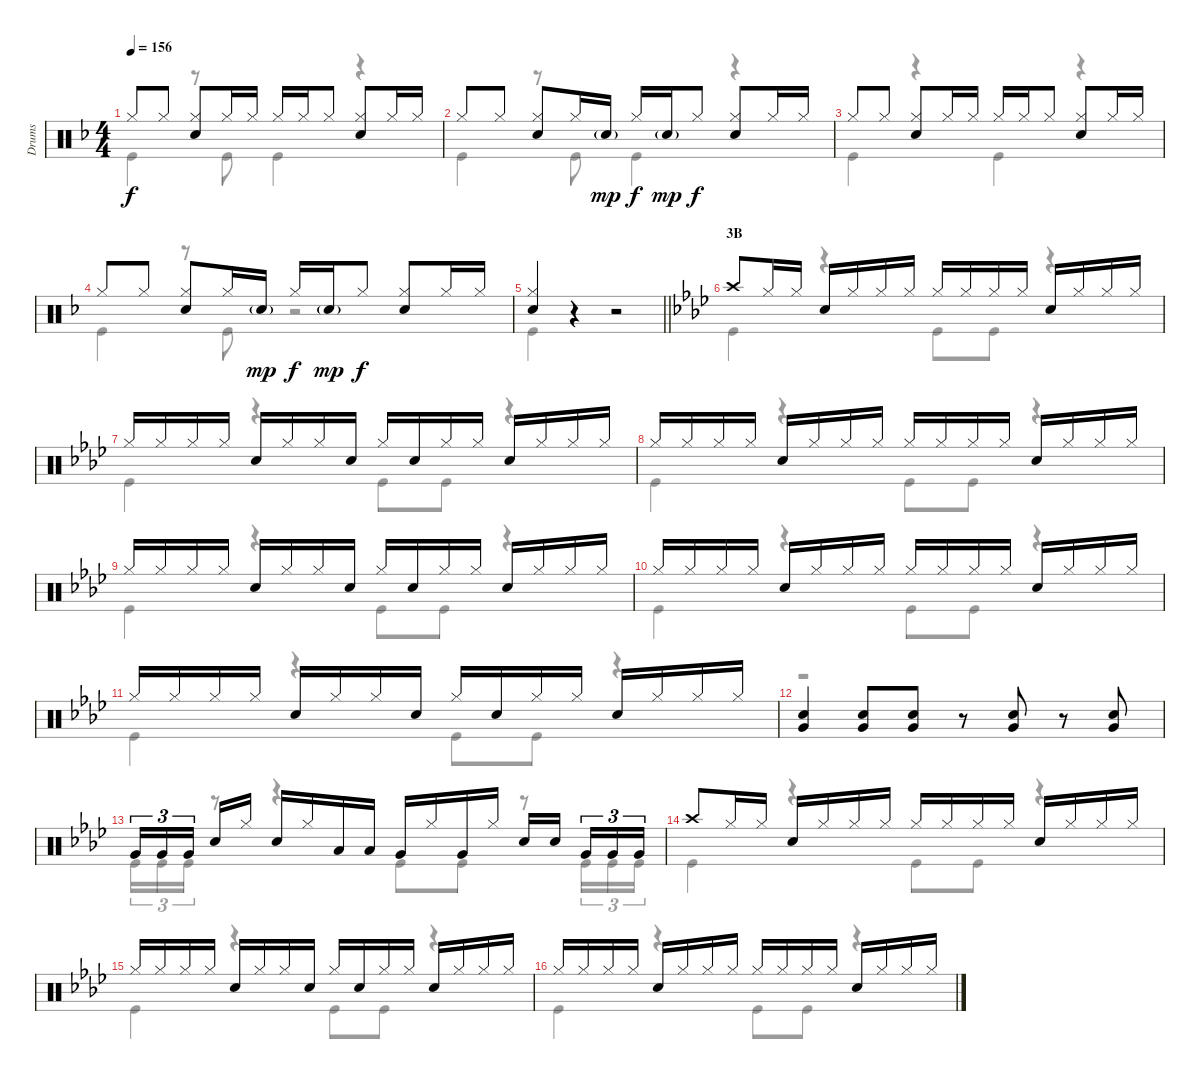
\track ("Drums" "Drums") {instrument percussion}
\staff {score}
\articulation defaults
\voice
\ts (4 4)
\tempo 156
\clef neutral
\ks f "Hi-Hat (closed)".8{dy f} "Hi-Hat (closed)".8
("Hi-Hat (closed)" "Snare (hit) 2").8 "Hi-Hat (closed)".16 "Hi-Hat (closed)".16 "Hi-Hat (closed)".16 "Hi-Hat (closed)".16 "Hi-Hat (closed)".8 ("Hi-Hat (closed)" "Snare (hit) 2").8 "Hi-Hat (closed)".16 "Hi-Hat (closed)".16 |
"Hi-Hat (closed)".8 "Hi-Hat (closed)".8 ("Hi-Hat (closed)" "Snare (hit) 2").8 "Hi-Hat (closed)".16 "Snare (hit) 2"{g}.16{dy mp} "Hi-Hat (closed)".16{dy f} "Snare (hit) 2"{g}.16{dy mp} "Hi-Hat (closed)".8{dy f} ("Hi-Hat (closed)" "Snare (hit) 2").8 "Hi-Hat (closed)".16 "Hi-Hat (closed)".16 |
"Hi-Hat (closed)".8 "Hi-Hat (closed)".8 ("Hi-Hat (closed)" "Snare (hit) 2").8 "Hi-Hat (closed)".16 "Hi-Hat (closed)".16 "Hi-Hat (closed)".16 "Hi-Hat (closed)".16 "Hi-Hat (closed)".8 ("Hi-Hat (closed)" "Snare (hit) 2").8 "Hi-Hat (closed)".16 "Hi-Hat (closed)".16 |
"Hi-Hat (closed)".8 "Hi-Hat (closed)".8 ("Hi-Hat (closed)" "Snare (hit) 2").8 "Hi-Hat (closed)".16 "Snare (hit) 2"{g}.16{dy mp} "Hi-Hat (closed)".16{dy f} "Snare (hit) 2"{g}.16{dy mp} "Hi-Hat (closed)".8{dy f} ("Hi-Hat (closed)" "Snare (hit) 2").8 "Hi-Hat (closed)".16 "Hi-Hat (closed)".16 |
\barLineRight lightlight
("Hi-Hat (closed)" "Snare (hit) 2").4 r.4 r.2 |
\section ("" "3B")
\ks ab "Crash high (hit)".8 "Hi-Hat (closed)".16 "Hi-Hat (closed)".16 "Snare (hit) 2".16 "Hi-Hat (closed)".16 "Hi-Hat (closed)".16 "Hi-Hat (closed)".16 "Hi-Hat (closed)".16 "Hi-Hat (closed)".16 "Hi-Hat (closed)".16 "Hi-Hat (closed)".16 "Snare (hit) 2".16 "Hi-Hat (closed)".16 "Hi-Hat (closed)".16 "Hi-Hat (closed)".16
|
"Hi-Hat (closed)".16 "Hi-Hat (closed)".16 "Hi-Hat (closed)".16 "Hi-Hat (closed)".16 "Snare (hit) 2".16 "Hi-Hat (closed)".16 "Hi-Hat (closed)".16 "Snare (hit) 2".16 "Hi-Hat (closed)".16 "Snare (hit) 2".16 "Hi-Hat (closed)".16 "Hi-Hat (closed)".16 "Snare (hit) 2".16 "Hi-Hat (closed)".16 "Hi-Hat (closed)".16 "Hi-Hat (closed)".16 |
"Hi-Hat (closed)".16 "Hi-Hat (closed)".16 "Hi-Hat (closed)".16 "Hi-Hat (closed)".16 "Snare (hit) 2".16 "Hi-Hat (closed)".16 "Hi-Hat (closed)".16 "Hi-Hat (closed)".16 "Hi-Hat (closed)".16 "Hi-Hat (closed)".16 "Hi-Hat (closed)".16 "Hi-Hat (closed)".16 "Snare (hit) 2".16 "Hi-Hat (closed)".16 "Hi-Hat (closed)".16 "Hi-Hat (closed)".16 |
"Hi-Hat (closed)".16 "Hi-Hat (closed)".16 "Hi-Hat (closed)".16 "Hi-Hat (closed)".16 "Snare (hit) 2".16 "Hi-Hat (closed)".16 "Hi-Hat (closed)".16 "Snare (hit) 2".16 "Hi-Hat (closed)".16 "Snare (hit) 2".16 "Hi-Hat (closed)".16 "Hi-Hat (closed)".16 "Snare (hit) 2".16 "Hi-Hat (closed)".16 "Hi-Hat (closed)".16 "Hi-Hat (closed)".16 |
"Hi-Hat (closed)".16 "Hi-Hat (closed)".16 "Hi-Hat (closed)".16 "Hi-Hat (closed)".16 "Snare (hit) 2".16 "Hi-Hat (closed)".16 "Hi-Hat (closed)".16 "Hi-Hat (closed)".16 "Hi-Hat (closed)".16 "Hi-Hat (closed)".16 "Hi-Hat (closed)".16 "Hi-Hat (closed)".16 "Snare (hit) 2".16 "Hi-Hat (closed)".16 "Hi-Hat (closed)".16 "Hi-Hat (closed)".16 |
"Hi-Hat (closed)".16 "Hi-Hat (closed)".16 "Hi-Hat (closed)".16 "Hi-Hat (closed)".16 "Snare (hit) 2".16 "Hi-Hat (closed)".16 "Hi-Hat (closed)".16 "Snare (hit) 2".16 "Hi-Hat (closed)".16 "Snare (hit) 2".16 "Hi-Hat (closed)".16 "Hi-Hat (closed)".16 "Snare (hit) 2".16 "Hi-Hat (closed)".16 "Hi-Hat (closed)".16 "Hi-Hat (closed)".16 |
("Snare (hit) 2" "Very Low Tom (hit)").4 ("Snare (hit) 2" "Very Low Tom (hit)").8 ("Snare (hit) 2" "Very Low Tom (hit)").8 r.8 ("Snare (hit) 2" "Very Low Tom (hit)").8 r.8 ("Snare (hit) 2" "Very Low Tom (hit)").8 |
"Very Low Tom (hit)".16{tu (3 2)} "Very Low Tom (hit)".16{tu (3 2)} "Very Low Tom (hit)".16{tu (3 2) beam splitsecondary} "Snare (hit) 2".16 "Hi-Hat (closed)".16 "Snare (hit) 2".16 "Hi-Hat (closed)".16 "Low Tom (hit)".16 "Low Tom (hit)".16 "Very Low Tom (hit)".16 "Hi-Hat (closed)".16 "Very Low Tom (hit)".16 "Hi-Hat (closed)".16 "Snare (hit) 2".16 "Snare (hit) 2".16{beam splitsecondary} "Very Low Tom (hit)".16{tu (3 2)} "Very Low Tom (hit)".16{tu (3 2)} "Very Low Tom (hit)".16{tu (3 2)} |
"Crash high (hit)".8 "Hi-Hat (closed)".16 "Hi-Hat (closed)".16 "Snare (hit) 2".16 "Hi-Hat (closed)".16 "Hi-Hat (closed)".16 "Hi-Hat (closed)".16 "Hi-Hat (closed)".16 "Hi-Hat (closed)".16 "Hi-Hat (closed)".16 "Hi-Hat (closed)".16 "Snare (hit) 2".16 "Hi-Hat (closed)".16 "Hi-Hat (closed)".16 "Hi-Hat (closed)".16 |
"Hi-Hat (closed)".16 "Hi-Hat (closed)".16 "Hi-Hat (closed)".16 "Hi-Hat (closed)".16 "Snare (hit) 2".16 "Hi-Hat (closed)".16 "Hi-Hat (closed)".16 "Snare (hit) 2".16 "Hi-Hat (closed)".16 "Snare (hit) 2".16 "Hi-Hat (closed)".16 "Hi-Hat (closed)".16 "Snare (hit) 2".16 "Hi-Hat (closed)".16 "Hi-Hat (closed)".16 "Hi-Hat (closed)".16 |
"Hi-Hat (closed)".16 "Hi-Hat (closed)".16 "Hi-Hat (closed)".16 "Hi-Hat (closed)".16 "Snare (hit) 2".16 "Hi-Hat (closed)".16 "Hi-Hat (closed)".16 "Hi-Hat (closed)".16 "Hi-Hat (closed)".16 "Hi-Hat (closed)".16 "Hi-Hat (closed)".16 "Hi-Hat (closed)".16 "Snare (hit) 2".16 "Hi-Hat (closed)".16 "Hi-Hat (closed)".16 "Hi-Hat (closed)".16
\voice
\clef neutral
\ottava regular
\simile none
\ks f "Kick (hit)".4{dy f}
r.8 "Kick (hit)".8 "Kick (hit)".4 r.4 |
"Kick (hit)".4 r.8 "Kick (hit)".8 "Kick (hit)".4 r.4 |
"Kick (hit)".4 r.4 "Kick (hit)".4 r.4 |
"Kick (hit)".4 r.8 "Kick (hit)".8 r.2 |
\barLineRight lightlight "Kick (hit)".4
r.4 r.2 |
\ks ab "Kick (hit)".4
r.4 "Kick (hit)".8 "Kick (hit)".8 r.4 |
"Kick (hit)".4 r.4 "Kick (hit)".8 "Kick (hit)".8 r.4 |
"Kick (hit)".4 r.4 "Kick (hit)".8 "Kick (hit)".8 r.4 |
"Kick (hit)".4 r.4 "Kick (hit)".8 "Kick (hit)".8 r.4 |
"Kick (hit)".4 r.4 "Kick (hit)".8 "Kick (hit)".8 r.4 |
"Kick (hit)".4 r.4 "Kick (hit)".8 "Kick (hit)".8 r.4 |
r.1 |
"Kick (hit)".16{tu (3 2)} "Kick (hit)".16{tu (3 2)} "Kick (hit)".16{tu (3 2)} r.8 r.4 "Kick (hit)".8 "Kick (hit)".8 r.8 "Kick (hit)".16{tu (3 2)} "Kick (hit)".16{tu (3 2)} "Kick (hit)".16{tu (3 2)} |
"Kick (hit)".4 r.4 "Kick (hit)".8 "Kick (hit)".8 r.4 |
"Kick (hit)".4 r.4 "Kick (hit)".8 "Kick (hit)".8 r.4 |
"Kick (hit)".4 r.4 "Kick (hit)".8 "Kick (hit)".8 r.4
